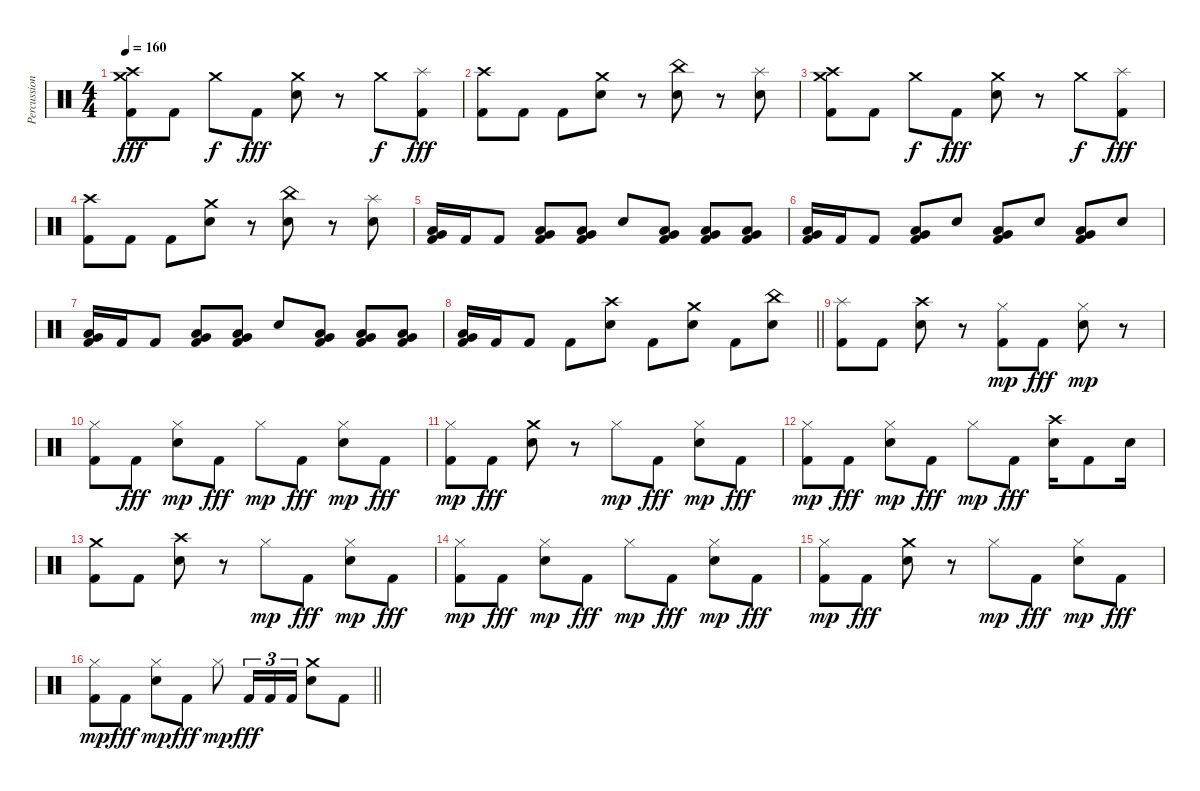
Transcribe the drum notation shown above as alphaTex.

\track ("Percussion" "Percussion") {instrument percussion}
\staff {score}
\articulation defaults
\ts (4 4)
\tempo 160
\clef neutral
\ks c
("Kick (hit) 2" "Crash high (hit)" "Crash medium (hit)").8{dy fff} "Kick (hit) 2".8 "Crash medium (hit)".8{dy f} "Kick (hit) 2".8{dy fff} ("Electric Snare (hit)" "Crash medium (hit)").8 r.8 "Crash medium (hit)".8{dy f} ("Kick (hit) 2" "Splash (hit)").8{dy fff} |
("Kick (hit) 2" "Crash high (hit)").8 "Kick (hit) 2".8 "Kick (hit) 2".8 ("Electric Snare (hit)" "Crash medium (hit)").8 r.8 ("Electric Snare (hit)" "China (hit)").8 r.8 ("Electric Snare (hit)" "Splash (hit)").8 |
("Kick (hit) 2" "Crash high (hit)" "Crash medium (hit)").8 "Kick (hit) 2".8 "Crash medium (hit)".8{dy f} "Kick (hit) 2".8{dy fff} ("Electric Snare (hit)" "Crash medium (hit)").8 r.8 "Crash medium (hit)".8{dy f} ("Kick (hit) 2" "Splash (hit)").8{dy fff} |
("Kick (hit) 2" "Crash high (hit)").8 "Kick (hit) 2".8 "Kick (hit) 2".8 ("Electric Snare (hit)" "Crash medium (hit)").8 r.8 ("Electric Snare (hit)" "China (hit)").8 r.8 ("Electric Snare (hit)" "Splash (hit)").8 |
("Kick (hit) 2" "Low Floor Tom (hit)" "Very Low Tom (hit)").16 "Kick (hit) 2".16 "Kick (hit) 2".8 ("Kick (hit) 2" "Low Floor Tom (hit)" "Very Low Tom (hit)").8 ("Kick (hit) 2" "Low Floor Tom (hit)" "Very Low Tom (hit)").8 "Electric Snare (hit)".8 ("Kick (hit) 2" "Low Floor Tom (hit)" "Very Low Tom (hit)").8 ("Kick (hit) 2" "Low Floor Tom (hit)" "Very Low Tom (hit)").8 ("Kick (hit) 2" "Low Floor Tom (hit)" "Very Low Tom (hit)").8 |
("Kick (hit) 2" "Low Floor Tom (hit)" "Very Low Tom (hit)").16 "Kick (hit) 2".16 "Kick (hit) 2".8 ("Kick (hit) 2" "Low Floor Tom (hit)" "Very Low Tom (hit)").8 "Electric Snare (hit)".8 ("Kick (hit) 2" "Low Floor Tom (hit)" "Very Low Tom (hit)").8 "Electric Snare (hit)".8 ("Kick (hit) 2" "Low Floor Tom (hit)" "Very Low Tom (hit)").8 "Electric Snare (hit)".8 |
("Kick (hit) 2" "Low Floor Tom (hit)" "Very Low Tom (hit)").16 "Kick (hit) 2".16 "Kick (hit) 2".8 ("Kick (hit) 2" "Low Floor Tom (hit)" "Very Low Tom (hit)").8 ("Kick (hit) 2" "Low Floor Tom (hit)" "Very Low Tom (hit)").8 "Electric Snare (hit)".8 ("Kick (hit) 2" "Low Floor Tom (hit)" "Very Low Tom (hit)").8 ("Kick (hit) 2" "Low Floor Tom (hit)" "Very Low Tom (hit)").8 ("Kick (hit) 2" "Low Floor Tom (hit)" "Very Low Tom (hit)").8 |
\barLineRight lightlight
("Kick (hit) 2" "Low Floor Tom (hit)" "Very Low Tom (hit)").16 "Kick (hit) 2".16 "Kick (hit) 2".8 "Kick (hit) 2".8 ("Electric Snare (hit)" "Crash high (hit)").8 "Kick (hit) 2".8 ("Electric Snare (hit)" "Crash medium (hit)").8 "Kick (hit) 2".8 ("Electric Snare (hit)" "China (hit)").8 |
("Kick (hit) 2" "Splash (hit)").8 "Kick (hit) 2".8 ("Electric Snare (hit)" "Crash high (hit)").8 r.8 ("Kick (hit) 2" "Hi-Hat (closed)").8{dy mp} "Kick (hit) 2".8{dy fff} ("Electric Snare (hit)" "Hi-Hat (closed)").8{dy mp} r.8 |
("Kick (hit) 2" "Hi-Hat (closed)").8 "Kick (hit) 2".8{dy fff} ("Electric Snare (hit)" "Hi-Hat (closed)").8{dy mp} "Kick (hit) 2".8{dy fff} "Hi-Hat (closed)".8{dy mp} "Kick (hit) 2".8{dy fff} ("Electric Snare (hit)" "Hi-Hat (closed)").8{dy mp} "Kick (hit) 2".8{dy fff} |
("Kick (hit) 2" "Hi-Hat (closed)").8{dy mp} "Kick (hit) 2".8{dy fff} ("Electric Snare (hit)" "Crash medium (hit)").8 r.8 "Hi-Hat (closed)".8{dy mp} "Kick (hit) 2".8{dy fff} ("Electric Snare (hit)" "Hi-Hat (closed)").8{dy mp} "Kick (hit) 2".8{dy fff} |
("Kick (hit) 2" "Hi-Hat (closed)").8{dy mp} "Kick (hit) 2".8{dy fff} ("Electric Snare (hit)" "Hi-Hat (closed)").8{dy mp} "Kick (hit) 2".8{dy fff} "Hi-Hat (closed)".8{dy mp} "Kick (hit) 2".8{dy fff} ("Electric Snare (hit)" "Crash high (hit)").16 "Kick (hit) 2".8 "Electric Snare (hit)".16 |
("Kick (hit) 2" "Crash medium (hit)").8 "Kick (hit) 2".8 ("Electric Snare (hit)" "Crash high (hit)").8 r.8 "Hi-Hat (closed)".8{dy mp} "Kick (hit) 2".8{dy fff} ("Electric Snare (hit)" "Hi-Hat (closed)").8{dy mp} "Kick (hit) 2".8{dy fff} |
("Kick (hit) 2" "Hi-Hat (closed)").8{dy mp} "Kick (hit) 2".8{dy fff} ("Electric Snare (hit)" "Hi-Hat (closed)").8{dy mp} "Kick (hit) 2".8{dy fff} "Hi-Hat (closed)".8{dy mp} "Kick (hit) 2".8{dy fff} ("Electric Snare (hit)" "Hi-Hat (closed)").8{dy mp} "Kick (hit) 2".8{dy fff} |
("Kick (hit) 2" "Hi-Hat (closed)").8{dy mp} "Kick (hit) 2".8{dy fff} ("Electric Snare (hit)" "Crash medium (hit)").8 r.8 "Hi-Hat (closed)".8{dy mp} "Kick (hit) 2".8{dy fff} ("Electric Snare (hit)" "Hi-Hat (closed)").8{dy mp} "Kick (hit) 2".8{dy fff} |
\barLineRight lightlight
("Kick (hit) 2" "Hi-Hat (closed)").8{dy mp} "Kick (hit) 2".8{dy fff} ("Electric Snare (hit)" "Hi-Hat (closed)").8{dy mp} "Kick (hit) 2".8{dy fff} "Hi-Hat (closed)".8{dy mp} "Kick (hit) 2".16{tu (3 2) dy fff} "Kick (hit) 2".16{tu (3 2)} "Kick (hit) 2".16{tu (3 2)} ("Electric Snare (hit)" "Crash medium (hit)").8 "Kick (hit) 2".8
